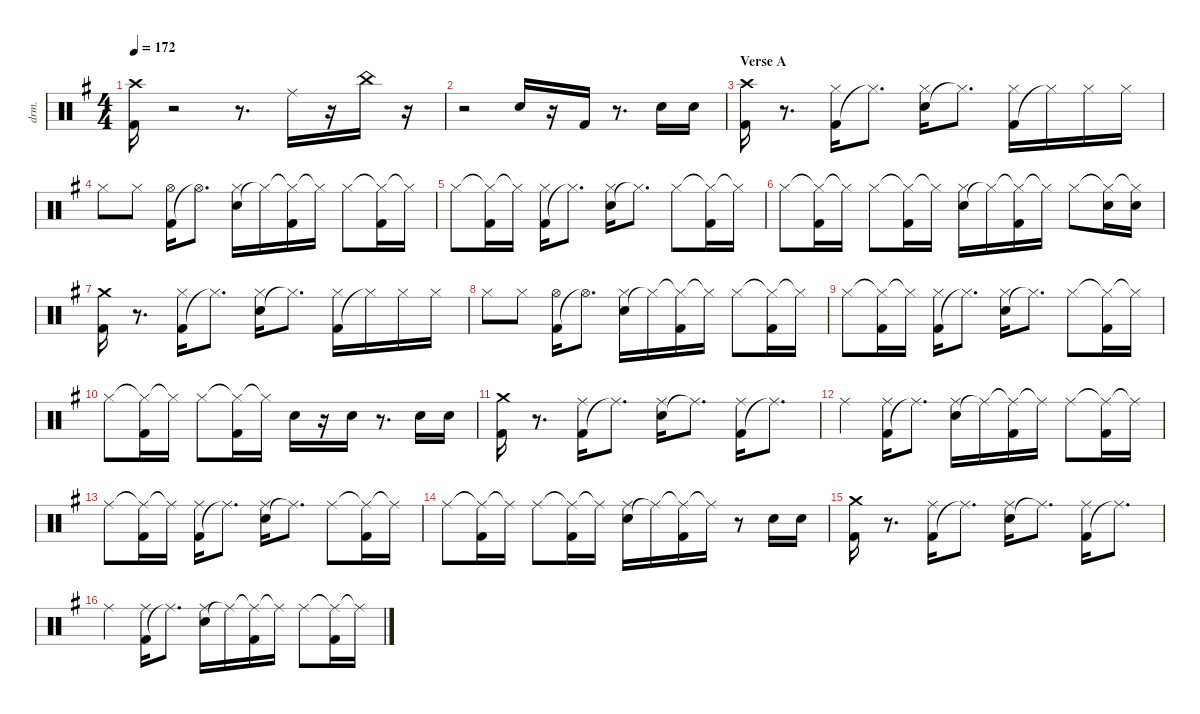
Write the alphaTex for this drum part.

\defaultSystemsLayout 4
\hideDynamics
\bracketExtendMode nobrackets
\otherSystemsTrackNameOrientation horizontal
\track ("Shinya" "drm.") {instrument percussion}
\staff {score}
\articulation defaults
\ts (4 4)
\tempo 172
\clef neutral
\ks eminor
("Kick (hit) 2"{acc forcenatural} "Crash high (hit)"{acc #}).16{dy fff} r.2 r.8{d} "Ride (middle)"{acc #}.16 r.16 "China (hit)"{acc forcenatural}.16{dy ff} r.16 |
r.2 "Snare (hit) 2"{acc forcenatural}.16{dy fff} r.16 "Kick (hit) 2"{acc forcenatural}.16 r.8{d} "Snare (hit) 2"{acc forcenatural}.16 "Snare (hit) 2"{acc forcenatural}.16 |
\section ("" "Verse A")
("Kick (hit) 2"{acc forcenatural} "Crash high (hit)"{acc #}).16 r.8{d} ("Kick (hit) 2"{acc forcenatural} "Hi-Hat (closed)"{acc #}).16 "Hi-Hat (closed)"{t acc #}.8{d} ("Snare (hit) 2"{acc forcenatural} "Hi-Hat (closed)"{acc #}).16 "Hi-Hat (closed)"{t acc #}.8{d} ("Kick (hit) 2"{acc forcenatural} "Hi-Hat (closed)"{acc #}).16 "Hi-Hat (closed)"{t acc #}.16 "Hi-Hat (closed)"{acc #}.16 "Hi-Hat (closed)"{acc #}.16 |
"Hi-Hat (closed)"{acc #}.8 "Hi-Hat (closed)"{acc #}.8 ("Kick (hit) 2"{acc forcenatural} "Hi-Hat (open)"{acc #}).16 "Hi-Hat (open)"{t acc #}.8{d} ("Snare (hit) 2"{acc forcenatural} "Hi-Hat (closed)"{acc #}).16 "Hi-Hat (closed)"{t acc #}.16 ("Hi-Hat (closed)"{t acc #} "Kick (hit) 2"{acc forcenatural}).16 "Hi-Hat (closed)"{t acc #}.16 "Hi-Hat (closed)"{acc #}.8 ("Hi-Hat (closed)"{t acc #} "Kick (hit) 2"{acc forcenatural}).16 "Hi-Hat (closed)"{t acc #}.16 |
"Hi-Hat (closed)"{acc #}.8 ("Hi-Hat (closed)"{t acc #} "Kick (hit) 2"{acc forcenatural}).16 "Hi-Hat (closed)"{t acc #}.16 ("Kick (hit) 2"{acc forcenatural} "Hi-Hat (closed)"{acc #}).16 "Hi-Hat (closed)"{t acc #}.8{d} ("Snare (hit) 2"{acc forcenatural} "Hi-Hat (closed)"{acc #}).16 "Hi-Hat (closed)"{t acc #}.8{d} "Hi-Hat (closed)"{acc #}.8 ("Hi-Hat (closed)"{t acc #} "Kick (hit) 2"{acc forcenatural}).16 "Hi-Hat (closed)"{t acc #}.16 |
"Hi-Hat (closed)"{acc #}.8 ("Hi-Hat (closed)"{t acc #} "Kick (hit) 2"{acc forcenatural}).16 "Hi-Hat (closed)"{t acc #}.16 "Hi-Hat (closed)"{acc #}.8 ("Hi-Hat (closed)"{t acc #} "Kick (hit) 2"{acc forcenatural}).16 "Hi-Hat (closed)"{t acc #}.16 ("Snare (hit) 2"{acc forcenatural} "Hi-Hat (closed)"{acc #}).16 "Hi-Hat (closed)"{t acc #}.16 ("Hi-Hat (closed)"{t acc #} "Kick (hit) 2"{acc forcenatural}).16 "Hi-Hat (closed)"{t acc #}.16 "Hi-Hat (closed)"{acc #}.8 ("Hi-Hat (closed)"{t acc #} "Snare (hit) 2"{acc forcenatural}).16 ("Hi-Hat (closed)"{t acc #} "Snare (hit) 2"{acc forcenatural}).16 |
("Kick (hit) 2"{acc forcenatural} "Crash medium (hit)"{acc forcenatural}).16 r.8{d} ("Kick (hit) 2"{acc forcenatural} "Hi-Hat (closed)"{acc #}).16 "Hi-Hat (closed)"{t acc #}.8{d} ("Snare (hit) 2"{acc forcenatural} "Hi-Hat (closed)"{acc #}).16 "Hi-Hat (closed)"{t acc #}.8{d} ("Kick (hit) 2"{acc forcenatural} "Hi-Hat (closed)"{acc #}).16 "Hi-Hat (closed)"{t acc #}.16 "Hi-Hat (closed)"{acc #}.16 "Hi-Hat (closed)"{acc #}.16 |
"Hi-Hat (closed)"{acc #}.8 "Hi-Hat (closed)"{acc #}.8 ("Kick (hit) 2"{acc forcenatural} "Hi-Hat (open)"{acc #}).16 "Hi-Hat (open)"{t acc #}.8{d} ("Snare (hit) 2"{acc forcenatural} "Hi-Hat (closed)"{acc #}).16 "Hi-Hat (closed)"{t acc #}.16 ("Hi-Hat (closed)"{t acc #} "Kick (hit) 2"{acc forcenatural}).16 "Hi-Hat (closed)"{t acc #}.16 "Hi-Hat (closed)"{acc #}.8 ("Hi-Hat (closed)"{t acc #} "Kick (hit) 2"{acc forcenatural}).16 "Hi-Hat (closed)"{t acc #}.16 |
"Hi-Hat (closed)"{acc #}.8 ("Hi-Hat (closed)"{t acc #} "Kick (hit) 2"{acc forcenatural}).16 "Hi-Hat (closed)"{t acc #}.16 ("Kick (hit) 2"{acc forcenatural} "Hi-Hat (closed)"{acc #}).16 "Hi-Hat (closed)"{t acc #}.8{d} ("Snare (hit) 2"{acc forcenatural} "Hi-Hat (closed)"{acc #}).16 "Hi-Hat (closed)"{t acc #}.8{d} "Hi-Hat (closed)"{acc #}.8 ("Hi-Hat (closed)"{t acc #} "Kick (hit) 2"{acc forcenatural}).16 "Hi-Hat (closed)"{t acc #}.16 |
"Hi-Hat (closed)"{acc #}.8 ("Hi-Hat (closed)"{t acc #} "Kick (hit) 2"{acc forcenatural}).16 "Hi-Hat (closed)"{t acc #}.16 "Hi-Hat (closed)"{acc #}.8 ("Hi-Hat (closed)"{t acc #} "Kick (hit) 2"{acc forcenatural}).16 "Hi-Hat (closed)"{t acc #}.16 "Snare (hit) 2"{acc forcenatural}.16 r.16 "Snare (hit) 2"{acc forcenatural}.16 r.8{d} "Snare (hit) 2"{acc forcenatural}.16 "Snare (hit) 2"{acc forcenatural}.16 |
("Kick (hit) 2"{acc forcenatural} "Crash medium (hit)"{acc forcenatural}).16 r.8{d} ("Kick (hit) 2"{acc forcenatural} "Ride (middle)"{acc #}).16 "Ride (middle)"{t acc #}.8{d} ("Snare (hit) 2"{acc forcenatural} "Ride (middle)"{acc #}).16 "Ride (middle)"{t acc #}.8{d} ("Kick (hit) 2"{acc forcenatural} "Ride (middle)"{acc #}).16 "Ride (middle)"{t acc #}.8{d} |
"Ride (middle)"{acc #}.4 ("Kick (hit) 2"{acc forcenatural} "Ride (middle)"{acc #}).16 "Ride (middle)"{t acc #}.8{d} ("Snare (hit) 2"{acc forcenatural} "Ride (middle)"{acc #}).16 "Ride (middle)"{t acc #}.16 ("Ride (middle)"{t acc #} "Kick (hit) 2"{acc forcenatural}).16 "Ride (middle)"{t acc #}.16 "Ride (middle)"{acc #}.8 ("Ride (middle)"{t acc #} "Kick (hit) 2"{acc forcenatural}).16 "Ride (middle)"{t acc #}.16 |
"Ride (middle)"{acc #}.8 ("Ride (middle)"{t acc #} "Kick (hit) 2"{acc forcenatural}).16 "Ride (middle)"{t acc #}.16 ("Kick (hit) 2"{acc forcenatural} "Ride (middle)"{acc #}).16 "Ride (middle)"{t acc #}.8{d} ("Snare (hit) 2"{acc forcenatural} "Ride (middle)"{acc #}).16 "Ride (middle)"{t acc #}.8{d} "Ride (middle)"{acc #}.8 ("Ride (middle)"{t acc #} "Kick (hit) 2"{acc forcenatural}).16 "Ride (middle)"{t acc #}.16 |
"Ride (middle)"{acc #}.8 ("Ride (middle)"{t acc #} "Kick (hit) 2"{acc forcenatural}).16 "Ride (middle)"{t acc #}.16 "Ride (middle)"{acc #}.8 ("Ride (middle)"{t acc #} "Kick (hit) 2"{acc forcenatural}).16 "Ride (middle)"{t acc #}.16 ("Snare (hit) 2"{acc forcenatural} "Ride (middle)"{acc #}).16 "Ride (middle)"{t acc #}.16 ("Ride (middle)"{t acc #} "Kick (hit) 2"{acc forcenatural}).16 "Ride (middle)"{t acc #}.16 r.8 "Snare (hit) 2"{acc forcenatural}.16 "Snare (hit) 2"{acc forcenatural}.16 |
("Kick (hit) 2"{acc forcenatural} "Crash medium (hit)"{acc forcenatural}).16 r.8{d} ("Kick (hit) 2"{acc forcenatural} "Ride (middle)"{acc #}).16 "Ride (middle)"{t acc #}.8{d} ("Snare (hit) 2"{acc forcenatural} "Ride (middle)"{acc #}).16 "Ride (middle)"{t acc #}.8{d} ("Kick (hit) 2"{acc forcenatural} "Ride (middle)"{acc #}).16 "Ride (middle)"{t acc #}.8{d} |
"Ride (middle)"{acc #}.4 ("Kick (hit) 2"{acc forcenatural} "Ride (middle)"{acc #}).16 "Ride (middle)"{t acc #}.8{d} ("Snare (hit) 2"{acc forcenatural} "Ride (middle)"{acc #}).16 "Ride (middle)"{t acc #}.16 ("Ride (middle)"{t acc #} "Kick (hit) 2"{acc forcenatural}).16 "Ride (middle)"{t acc #}.16 "Ride (middle)"{acc #}.8 ("Ride (middle)"{t acc #} "Kick (hit) 2"{acc forcenatural}).16 "Ride (middle)"{t acc #}.16
